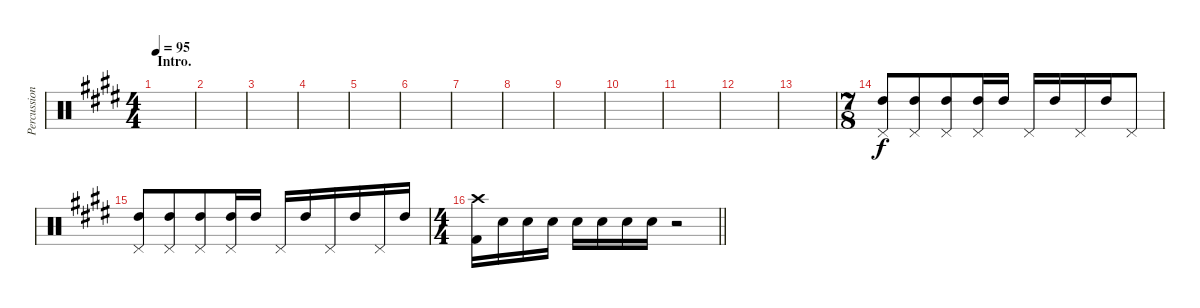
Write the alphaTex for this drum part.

\track ("Percussion" "Percussion") {instrument percussion}
\staff {score}
\articulation defaults
\ts (4 4)
\section ("" "Intro.")
\tempo 95
\clef neutral
\ks e
|
|
|
|
|
|
|
|
|
|
|
|
|
\ts (7 8)
("High Tom (hit)" "Pedal Hi-Hat (hit)").8 ("High Tom (hit)" "Pedal Hi-Hat (hit)").8 ("High Tom (hit)" "Pedal Hi-Hat (hit)").8 ("High Tom (hit)" "Pedal Hi-Hat (hit)").16 "High Tom (hit)".16 "Pedal Hi-Hat (hit)".16 "High Tom (hit)".16 "Pedal Hi-Hat (hit)".16 "High Tom (hit)".16 "Pedal Hi-Hat (hit)".8 |
("High Tom (hit)" "Pedal Hi-Hat (hit)").8 ("High Tom (hit)" "Pedal Hi-Hat (hit)").8 ("High Tom (hit)" "Pedal Hi-Hat (hit)").8 ("High Tom (hit)" "Pedal Hi-Hat (hit)").16 "High Tom (hit)".16 "Pedal Hi-Hat (hit)".16 "High Tom (hit)".16 "Pedal Hi-Hat (hit)".16 "High Tom (hit)".16 "Pedal Hi-Hat (hit)".16 "High Tom (hit)".16 |
\ts (4 4)
\barLineRight lightlight
("Crash high (hit)" "Kick (hit) 2").16 "Snare (hit) 2".16 "Snare (hit) 2".16 "Snare (hit) 2".16 "Snare (hit) 2".16 "Snare (hit) 2".16 "Snare (hit) 2".16 "Snare (hit) 2".16 r.2
